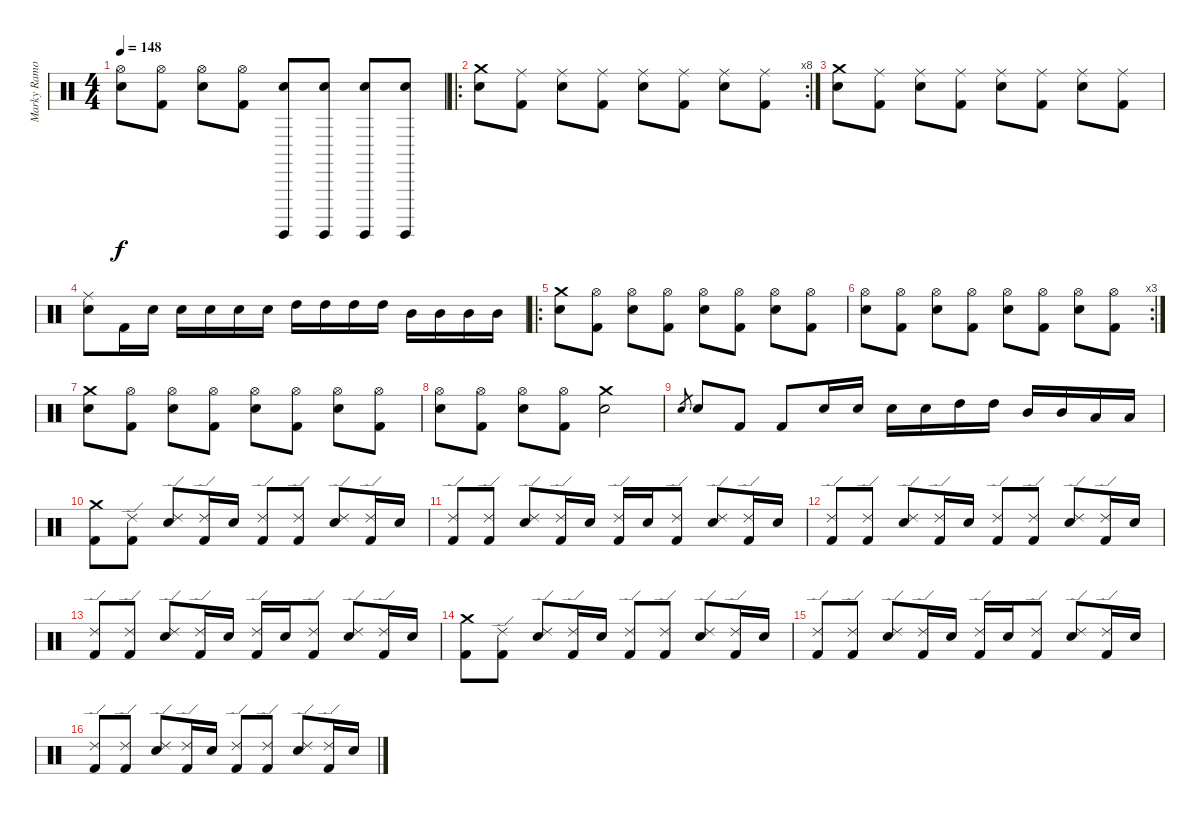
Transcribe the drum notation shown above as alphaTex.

\track ("Marky Ramone" "Marky Ramo") {instrument percussion}
\staff {score}
\articulation defaults
\ts (4 4)
\tempo 148
\clef neutral
\ks c
("Hi-Hat (open)" "Snare (hit) 2").8{dy f} ("Hi-Hat (open)" "Kick (hit) 2").8 ("Hi-Hat (open)" "Snare (hit) 2").8 ("Hi-Hat (open)" "Kick (hit) 2").8 ("Surdo (hit)" "Snare (hit) 2").8 ("Surdo (hit)" "Snare (hit) 2").8 ("Surdo (hit)" "Snare (hit) 2").8 ("Surdo (hit)" "Snare (hit) 2").8 |
\ro
\rc 8
("Crash medium (hit)" "Snare (hit) 2").8 ("Ride (middle)" "Kick (hit) 2").8 ("Ride (middle)" "Snare (hit) 2").8 ("Ride (middle)" "Kick (hit) 2").8 ("Ride (middle)" "Snare (hit) 2").8 ("Ride (middle)" "Kick (hit) 2").8 ("Ride (middle)" "Snare (hit) 2").8 ("Ride (middle)" "Kick (hit) 2").8 |
("Crash medium (hit)" "Snare (hit) 2").8 ("Ride (middle)" "Kick (hit) 2").8 ("Ride (middle)" "Snare (hit) 2").8 ("Ride (middle)" "Kick (hit) 2").8 ("Ride (middle)" "Snare (hit) 2").8 ("Ride (middle)" "Kick (hit) 2").8 ("Ride (middle)" "Snare (hit) 2").8 ("Ride (middle)" "Kick (hit) 2").8 |
("Ride (middle)" "Snare (hit) 2").8 "Kick (hit) 2".16 "Snare (hit) 2".16 "Snare (hit) 2".16 "Snare (hit) 2".16 "Snare (hit) 2".16 "Snare (hit) 2".16 "High Tom (hit)".16 "High Tom (hit)".16 "High Tom (hit)".16 "High Tom (hit)".16 "Mid Tom (hit)".16 "Mid Tom (hit)".16 "Mid Tom (hit)".16 "Mid Tom (hit)".16 |
\ro
("Crash medium (hit)" "Snare (hit) 2").8 ("Hi-Hat (open)" "Kick (hit) 2").8 ("Hi-Hat (open)" "Snare (hit) 2").8 ("Hi-Hat (open)" "Kick (hit) 2").8 ("Hi-Hat (open)" "Snare (hit) 2").8 ("Hi-Hat (open)" "Kick (hit) 2").8 ("Hi-Hat (open)" "Snare (hit) 2").8 ("Hi-Hat (open)" "Kick (hit) 2").8 |
\rc 3
("Hi-Hat (open)" "Snare (hit) 2").8 ("Hi-Hat (open)" "Kick (hit) 2").8 ("Hi-Hat (open)" "Snare (hit) 2").8 ("Hi-Hat (open)" "Kick (hit) 2").8 ("Hi-Hat (open)" "Snare (hit) 2").8 ("Hi-Hat (open)" "Kick (hit) 2").8 ("Hi-Hat (open)" "Snare (hit) 2").8 ("Hi-Hat (open)" "Kick (hit) 2").8 |
("Crash medium (hit)" "Snare (hit) 2").8 ("Hi-Hat (open)" "Kick (hit) 2").8 ("Hi-Hat (open)" "Snare (hit) 2").8 ("Hi-Hat (open)" "Kick (hit) 2").8 ("Hi-Hat (open)" "Snare (hit) 2").8 ("Hi-Hat (open)" "Kick (hit) 2").8 ("Hi-Hat (open)" "Snare (hit) 2").8 ("Hi-Hat (open)" "Kick (hit) 2").8 |
("Hi-Hat (open)" "Snare (hit) 2").8 ("Hi-Hat (open)" "Kick (hit) 2").8 ("Hi-Hat (open)" "Snare (hit) 2").8 ("Hi-Hat (open)" "Kick (hit) 2").8 ("Crash medium (hit)" "Snare (hit) 2").2 |
"Snare (hit) 2".8{gr} "Snare (hit) 2".8 "Kick (hit) 2".8 "Kick (hit) 2".8 "Snare (hit) 2".16 "Snare (hit) 2".16 "Snare (hit) 2".16 "Snare (hit) 2".16 "High Tom (hit)".16 "High Tom (hit)".16 "Mid Tom (hit)".16 "Mid Tom (hit)".16 "Low Tom (hit)".16 "Low Tom (hit)".16 |
("Crash medium (hit)" "Kick (hit) 2").8 ("Ride (edge) 2" "Kick (hit) 2").8 ("Ride (edge) 2" "Snare (hit) 2").8 ("Ride (edge) 2" "Kick (hit) 2").16 "Snare (hit) 2".16 ("Ride (edge) 2" "Kick (hit) 2").8 ("Ride (edge) 2" "Kick (hit) 2").8 ("Ride (edge) 2" "Snare (hit) 2").8 ("Ride (edge) 2" "Kick (hit) 2").16 "Snare (hit) 2".16 |
("Ride (edge) 2" "Kick (hit) 2").8 ("Ride (edge) 2" "Kick (hit) 2").8 ("Ride (edge) 2" "Snare (hit) 2").8 ("Ride (edge) 2" "Kick (hit) 2").16 "Snare (hit) 2".16 ("Ride (edge) 2" "Kick (hit) 2").16 "Snare (hit) 2".16 ("Ride (edge) 2" "Kick (hit) 2").8 ("Ride (edge) 2" "Snare (hit) 2").8 ("Ride (edge) 2" "Kick (hit) 2").16 "Snare (hit) 2".16 |
("Ride (edge) 2" "Kick (hit) 2").8 ("Ride (edge) 2" "Kick (hit) 2").8 ("Ride (edge) 2" "Snare (hit) 2").8 ("Ride (edge) 2" "Kick (hit) 2").16 "Snare (hit) 2".16 ("Ride (edge) 2" "Kick (hit) 2").8 ("Ride (edge) 2" "Kick (hit) 2").8 ("Ride (edge) 2" "Snare (hit) 2").8 ("Ride (edge) 2" "Kick (hit) 2").16 "Snare (hit) 2".16 |
("Ride (edge) 2" "Kick (hit) 2").8 ("Ride (edge) 2" "Kick (hit) 2").8 ("Ride (edge) 2" "Snare (hit) 2").8 ("Ride (edge) 2" "Kick (hit) 2").16 "Snare (hit) 2".16 ("Ride (edge) 2" "Kick (hit) 2").16 "Snare (hit) 2".16 ("Ride (edge) 2" "Kick (hit) 2").8 ("Ride (edge) 2" "Snare (hit) 2").8 ("Ride (edge) 2" "Kick (hit) 2").16 "Snare (hit) 2".16 |
("Crash medium (hit)" "Kick (hit) 2").8 ("Ride (edge) 2" "Kick (hit) 2").8 ("Ride (edge) 2" "Snare (hit) 2").8 ("Ride (edge) 2" "Kick (hit) 2").16 "Snare (hit) 2".16 ("Ride (edge) 2" "Kick (hit) 2").8 ("Ride (edge) 2" "Kick (hit) 2").8 ("Ride (edge) 2" "Snare (hit) 2").8 ("Ride (edge) 2" "Kick (hit) 2").16 "Snare (hit) 2".16 |
("Ride (edge) 2" "Kick (hit) 2").8 ("Ride (edge) 2" "Kick (hit) 2").8 ("Ride (edge) 2" "Snare (hit) 2").8 ("Ride (edge) 2" "Kick (hit) 2").16 "Snare (hit) 2".16 ("Ride (edge) 2" "Kick (hit) 2").16 "Snare (hit) 2".16 ("Ride (edge) 2" "Kick (hit) 2").8 ("Ride (edge) 2" "Snare (hit) 2").8 ("Ride (edge) 2" "Kick (hit) 2").16 "Snare (hit) 2".16 |
("Ride (edge) 2" "Kick (hit) 2").8 ("Ride (edge) 2" "Kick (hit) 2").8 ("Ride (edge) 2" "Snare (hit) 2").8 ("Ride (edge) 2" "Kick (hit) 2").16 "Snare (hit) 2".16 ("Ride (edge) 2" "Kick (hit) 2").8 ("Ride (edge) 2" "Kick (hit) 2").8 ("Ride (edge) 2" "Snare (hit) 2").8 ("Ride (edge) 2" "Kick (hit) 2").16 "Snare (hit) 2".16
